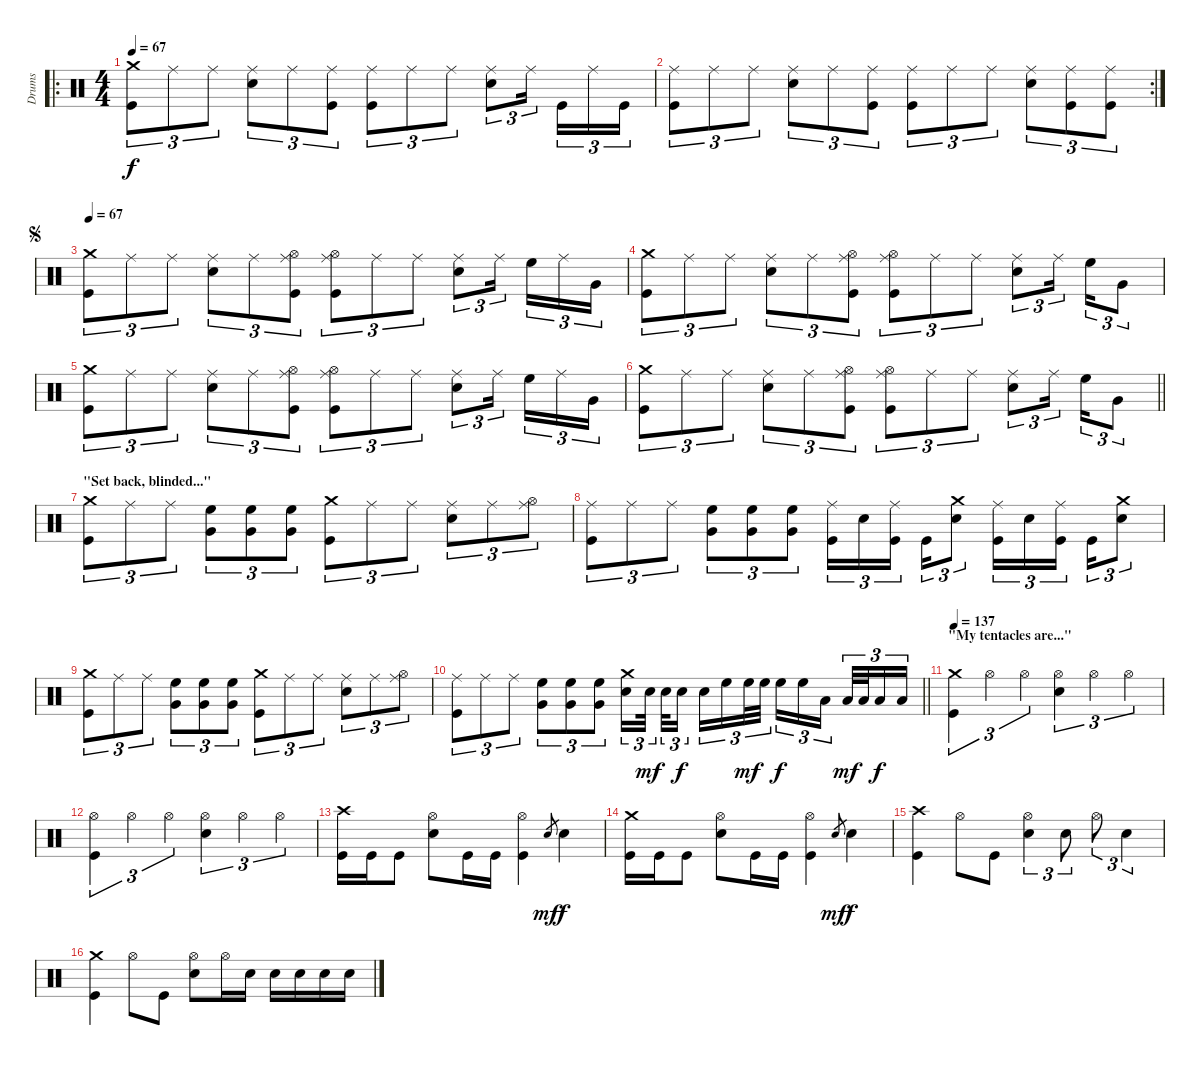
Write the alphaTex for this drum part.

\track ("Drums" "Drums") {instrument percussion}
\staff {score}
\articulation defaults
\ro
\ts (4 4)
\tempo 67
\clef neutral
\ks c
("Crash medium (hit)" "Kick (hit)").8{tu (3 2) dy f} "Ride (middle)".8{tu (3 2)} "Ride (middle)".8{tu (3 2)} ("Ride (middle)" "Snare (hit) 2").8{tu (3 2)} "Ride (middle)".8{tu (3 2)} ("Ride (middle)" "Kick (hit)").8{tu (3 2)} ("Ride (middle)" "Kick (hit)").8{tu (3 2)} "Ride (middle)".8{tu (3 2)} "Ride (middle)".8{tu (3 2)} ("Ride (middle)" "Snare (hit) 2").8{tu (3 2)} "Ride (middle)".16{tu (3 2) beam splitsecondary} "Kick (hit)".16{tu (3 2)} "Ride (middle)".16{tu (3 2)} "Kick (hit)".16{tu (3 2)} |
\rc 2
("Ride (middle)" "Kick (hit)").8{tu (3 2)} "Ride (middle)".8{tu (3 2)} "Ride (middle)".8{tu (3 2)} ("Ride (middle)" "Snare (hit) 2").8{tu (3 2)} "Ride (middle)".8{tu (3 2)} ("Ride (middle)" "Kick (hit)").8{tu (3 2)} ("Ride (middle)" "Kick (hit)").8{tu (3 2)} "Ride (middle)".8{tu (3 2)} "Ride (middle)".8{tu (3 2)} ("Ride (middle)" "Snare (hit) 2").8{tu (3 2)} ("Ride (middle)" "Kick (hit)").8{tu (3 2)} ("Ride (middle)" "Kick (hit)").8{tu (3 2)} |
\jump segno
\tempo 67
("Crash medium (hit)" "Kick (hit)").8{tu (3 2)} "Ride (middle)".8{tu (3 2)} "Ride (middle)".8{tu (3 2)} ("Ride (middle)" "Snare (hit) 2").8{tu (3 2)} "Ride (middle)".8{tu (3 2)} ("Ride (middle)" "Kick (hit)" "Hi-Hat (open)").8{tu (3 2)} ("Ride (middle)" "Kick (hit)" "Hi-Hat (open)").8{tu (3 2)} "Ride (middle)".8{tu (3 2)} "Ride (middle)".8{tu (3 2)} ("Ride (middle)" "Snare (hit) 2").8{tu (3 2)} "Ride (middle)".16{tu (3 2) beam splitsecondary} "High Floor Tom (hit)".16{tu (3 2)} "Ride (middle)".16{tu (3 2)} "Very Low Tom (hit)".16{tu (3 2)} |
("Crash medium (hit)" "Kick (hit)").8{tu (3 2)} "Ride (middle)".8{tu (3 2)} "Ride (middle)".8{tu (3 2)} ("Ride (middle)" "Snare (hit) 2").8{tu (3 2)} "Ride (middle)".8{tu (3 2)} ("Ride (middle)" "Kick (hit)" "Hi-Hat (open)").8{tu (3 2)} ("Ride (middle)" "Kick (hit)" "Hi-Hat (open)").8{tu (3 2)} "Ride (middle)".8{tu (3 2)} "Ride (middle)".8{tu (3 2)} ("Ride (middle)" "Snare (hit) 2").8{tu (3 2)} "Ride (middle)".16{tu (3 2) beam splitsecondary} "High Floor Tom (hit)".16{tu (3 2)} "Very Low Tom (hit)".8{tu (3 2)} |
("Crash medium (hit)" "Kick (hit)").8{tu (3 2)} "Ride (middle)".8{tu (3 2)} "Ride (middle)".8{tu (3 2)} ("Ride (middle)" "Snare (hit) 2").8{tu (3 2)} "Ride (middle)".8{tu (3 2)} ("Ride (middle)" "Kick (hit)" "Hi-Hat (open)").8{tu (3 2)} ("Ride (middle)" "Kick (hit)" "Hi-Hat (open)").8{tu (3 2)} "Ride (middle)".8{tu (3 2)} "Ride (middle)".8{tu (3 2)} ("Ride (middle)" "Snare (hit) 2").8{tu (3 2)} "Ride (middle)".16{tu (3 2) beam splitsecondary} "High Floor Tom (hit)".16{tu (3 2)} "Ride (middle)".16{tu (3 2)} "Very Low Tom (hit)".16{tu (3 2)} |
\barLineRight lightlight
("Crash medium (hit)" "Kick (hit)").8{tu (3 2)} "Ride (middle)".8{tu (3 2)} "Ride (middle)".8{tu (3 2)} ("Ride (middle)" "Snare (hit) 2").8{tu (3 2)} "Ride (middle)".8{tu (3 2)} ("Ride (middle)" "Kick (hit)" "Hi-Hat (open)").8{tu (3 2)} ("Ride (middle)" "Kick (hit)" "Hi-Hat (open)").8{tu (3 2)} "Ride (middle)".8{tu (3 2)} "Ride (middle)".8{tu (3 2)} ("Ride (middle)" "Snare (hit) 2").8{tu (3 2)} "Ride (middle)".16{tu (3 2) beam splitsecondary} "High Floor Tom (hit)".16{tu (3 2)} "Very Low Tom (hit)".8{tu (3 2)} |
\section ("" "\"Set back, blinded...\"")
("Kick (hit)" "Crash medium (hit)").8{tu (3 2)} "Ride (middle)".8{tu (3 2)} "Ride (middle)".8{tu (3 2)} ("High Floor Tom (hit)" "Very Low Tom (hit)").8{tu (3 2)} ("High Floor Tom (hit)" "Very Low Tom (hit)").8{tu (3 2)} ("High Floor Tom (hit)" "Very Low Tom (hit)").8{tu (3 2)} ("Crash medium (hit)" "Kick (hit)").8{tu (3 2)} "Ride (middle)".8{tu (3 2)} "Ride (middle)".8{tu (3 2)} ("Snare (hit) 2" "Ride (middle)").8{tu (3 2)} "Ride (middle)".8{tu (3 2)} ("Ride (middle)" "Hi-Hat (open)").8{tu (3 2)} |
("Ride (middle)" "Kick (hit)").8{tu (3 2)} "Ride (middle)".8{tu (3 2)} "Ride (middle)".8{tu (3 2)} ("High Floor Tom (hit)" "Very Low Tom (hit)").8{tu (3 2)} ("High Floor Tom (hit)" "Very Low Tom (hit)").8{tu (3 2)} ("High Floor Tom (hit)" "Very Low Tom (hit)").8{tu (3 2)} ("Kick (hit)" "Ride (middle)").16{tu (3 2)} "Snare (hit) 2".16{tu (3 2)} ("Kick (hit)" "Ride (middle)").16{tu (3 2) beam splitsecondary} "Kick (hit)".16{tu (3 2)} ("Snare (hit) 2" "Crash medium (hit)").8{tu (3 2)} ("Kick (hit)" "Ride (middle)").16{tu (3 2)} "Snare (hit) 2".16{tu (3 2)} ("Kick (hit)" "Ride (middle)").16{tu (3 2) beam splitsecondary} "Kick (hit)".16{tu (3 2)} ("Snare (hit) 2" "Crash medium (hit)").8{tu (3 2)} |
("Kick (hit)" "Crash medium (hit)").8{tu (3 2)} "Ride (middle)".8{tu (3 2)} "Ride (middle)".8{tu (3 2)} ("High Floor Tom (hit)" "Very Low Tom (hit)").8{tu (3 2)} ("High Floor Tom (hit)" "Very Low Tom (hit)").8{tu (3 2)} ("High Floor Tom (hit)" "Very Low Tom (hit)").8{tu (3 2)} ("Crash medium (hit)" "Kick (hit)").8{tu (3 2)} "Ride (middle)".8{tu (3 2)} "Ride (middle)".8{tu (3 2)} ("Snare (hit) 2" "Ride (middle)").8{tu (3 2)} "Ride (middle)".8{tu (3 2)} ("Ride (middle)" "Hi-Hat (open)").8{tu (3 2)} |
\barLineRight lightlight
("Ride (middle)" "Kick (hit)").8{tu (3 2)} "Ride (middle)".8{tu (3 2)} "Ride (middle)".8{tu (3 2)} ("High Floor Tom (hit)" "Very Low Tom (hit)").8{tu (3 2)} ("High Floor Tom (hit)" "Very Low Tom (hit)").8{tu (3 2)} ("High Floor Tom (hit)" "Very Low Tom (hit)").8{tu (3 2)} ("Snare (hit) 2" "Crash medium (hit)").16{tu (3 2)} "Snare (hit) 2".32{tu (3 2) dy mf beam splitsecondary} "Snare (hit) 2".32{tu (3 2)} "Snare (hit) 2".16{tu (3 2) dy f beam splitsecondary} "Snare (hit) 2".16{tu (3 2)} "High Floor Tom (hit)".16{tu (3 2)} "High Floor Tom (hit)".32{tu (3 2) dy mf} "High Floor Tom (hit)".32{tu (3 2)} "High Floor Tom (hit)".16{tu (3 2) dy f} "High Floor Tom (hit)".16{tu (3 2)} "Low Tom (hit)".16{tu (3 2) beam splitsecondary} "Low Tom (hit)".32{tu (3 2) dy mf} "Low Tom (hit)".32{tu (3 2)} "Low Tom (hit)".16{tu (3 2) dy f} "Low Tom (hit)".16{tu (3 2)} |
\section ("" "\"My tentacles are...\"")
\tempo 137
("Crash medium (hit)" "Kick (hit)").4{tu (3 2)} "Hi-Hat (open)".4{tu (3 2)} "Hi-Hat (open)".4{tu (3 2)} ("Hi-Hat (open)" "Snare (hit) 2").4{tu (3 2)} "Hi-Hat (open)".4{tu (3 2)} "Hi-Hat (open)".4{tu (3 2)} |
("Hi-Hat (open)" "Kick (hit)").4{tu (3 2)} "Hi-Hat (open)".4{tu (3 2)} "Hi-Hat (open)".4{tu (3 2)} ("Hi-Hat (open)" "Snare (hit) 2").4{tu (3 2)} "Hi-Hat (open)".4{tu (3 2)} "Hi-Hat (open)".4{tu (3 2)} |
("Kick (hit)" "Crash high (hit)").16 "Kick (hit)".16 "Kick (hit)".8 ("Snare (hit) 2" "Hi-Hat (open)").8 "Kick (hit)".16 "Kick (hit)".16 ("Kick (hit)" "Hi-Hat (open)").4 "Snare (hit) 2".8{gr dy mf} "Snare (hit) 2".4{dy f} |
("Kick (hit)" "Crash medium (hit)").16 "Kick (hit)".16 "Kick (hit)".8 ("Snare (hit) 2" "Hi-Hat (open)").8 "Kick (hit)".16 "Kick (hit)".16 ("Kick (hit)" "Hi-Hat (open)").4 "Snare (hit) 2".8{gr dy mf} "Snare (hit) 2".4{dy f} |
("Crash high (hit)" "Kick (hit)").4 "Hi-Hat (open)".8 "Kick (hit)".8 ("Hi-Hat (open)" "Snare (hit) 2").4{tu (3 2)} "Snare (hit) 2".8{tu (3 2)} "Hi-Hat (open)".8{tu (3 2)} "Snare (hit) 2".4{tu (3 2)} |
("Crash medium (hit)" "Kick (hit)").4 "Hi-Hat (open)".8 "Kick (hit)".8 ("Hi-Hat (open)" "Snare (hit) 2").8 "Hi-Hat (open)".16 "Snare (hit) 2".16 "Snare (hit) 2".16 "Snare (hit) 2".16 "Snare (hit) 2".16 "Snare (hit) 2".16
